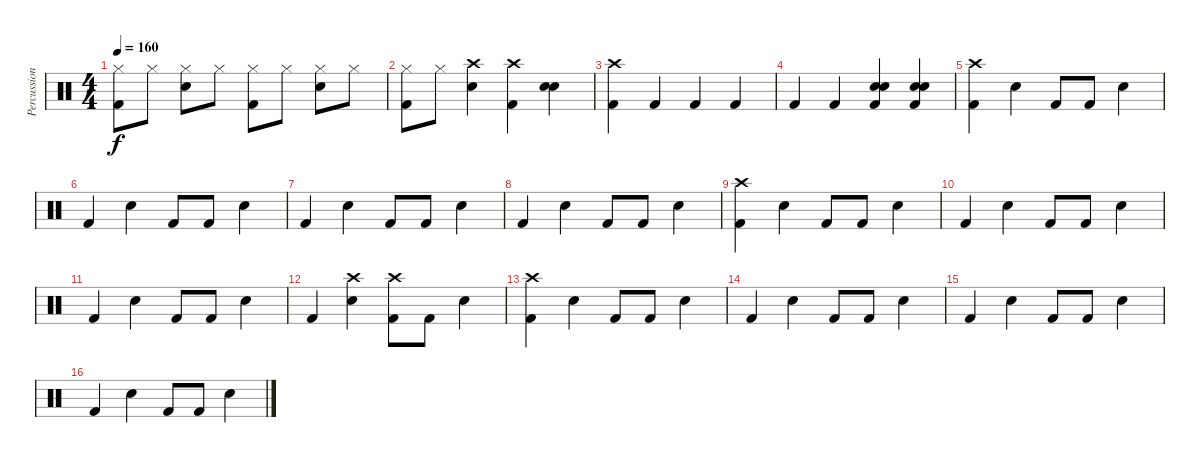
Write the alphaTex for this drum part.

\track ("Percussion" "Percussion") {instrument percussion}
\staff {score}
\articulation defaults
\ts (4 4)
\tempo 160
\clef neutral
\ks c
("Hi-Hat (closed)" "Kick (hit) 2").8{dy f} "Hi-Hat (closed)".8 ("Hi-Hat (closed)" "Snare (hit) 2").8 "Hi-Hat (closed)".8 ("Hi-Hat (closed)" "Kick (hit) 2").8 "Hi-Hat (closed)".8 ("Hi-Hat (closed)" "Snare (hit) 2").8 "Hi-Hat (closed)".8 |
("Hi-Hat (closed)" "Kick (hit) 2").8 "Hi-Hat (closed)".8 ("Crash high (hit)" "Snare (hit) 2").4 ("Crash high (hit)" "Kick (hit) 2").4 ("Snare (hit) 2" "Snare (hit) 2").4 |
("Crash high (hit)" "Kick (hit) 2").4 "Kick (hit) 2".4 "Kick (hit) 2".4 "Kick (hit) 2".4 |
"Kick (hit) 2".4 "Kick (hit) 2".4 ("Snare (hit) 2" "Snare (hit) 2" "Kick (hit) 2").4 ("Snare (hit) 2" "Snare (hit) 2" "Kick (hit) 2").4 |
("Crash high (hit)" "Kick (hit) 2").4 "Snare (hit) 2".4 "Kick (hit) 2".8 "Kick (hit) 2".8 "Snare (hit) 2".4 |
"Kick (hit) 2".4 "Snare (hit) 2".4 "Kick (hit) 2".8 "Kick (hit) 2".8 "Snare (hit) 2".4 |
"Kick (hit) 2".4 "Snare (hit) 2".4 "Kick (hit) 2".8 "Kick (hit) 2".8 "Snare (hit) 2".4 |
"Kick (hit) 2".4 "Snare (hit) 2".4 "Kick (hit) 2".8 "Kick (hit) 2".8 "Snare (hit) 2".4 |
("Crash high (hit)" "Kick (hit) 2").4 "Snare (hit) 2".4 "Kick (hit) 2".8 "Kick (hit) 2".8 "Snare (hit) 2".4 |
"Kick (hit) 2".4 "Snare (hit) 2".4 "Kick (hit) 2".8 "Kick (hit) 2".8 "Snare (hit) 2".4 |
"Kick (hit) 2".4 "Snare (hit) 2".4 "Kick (hit) 2".8 "Kick (hit) 2".8 "Snare (hit) 2".4 |
"Kick (hit) 2".4 ("Crash high (hit)" "Snare (hit) 2").4 ("Crash high (hit)" "Kick (hit) 2").8 "Kick (hit) 2".8 "Snare (hit) 2".4 |
("Crash high (hit)" "Kick (hit) 2").4 "Snare (hit) 2".4 "Kick (hit) 2".8 "Kick (hit) 2".8 "Snare (hit) 2".4 |
"Kick (hit) 2".4 "Snare (hit) 2".4 "Kick (hit) 2".8 "Kick (hit) 2".8 "Snare (hit) 2".4 |
"Kick (hit) 2".4 "Snare (hit) 2".4 "Kick (hit) 2".8 "Kick (hit) 2".8 "Snare (hit) 2".4 |
"Kick (hit) 2".4 "Snare (hit) 2".4 "Kick (hit) 2".8 "Kick (hit) 2".8 "Snare (hit) 2".4
